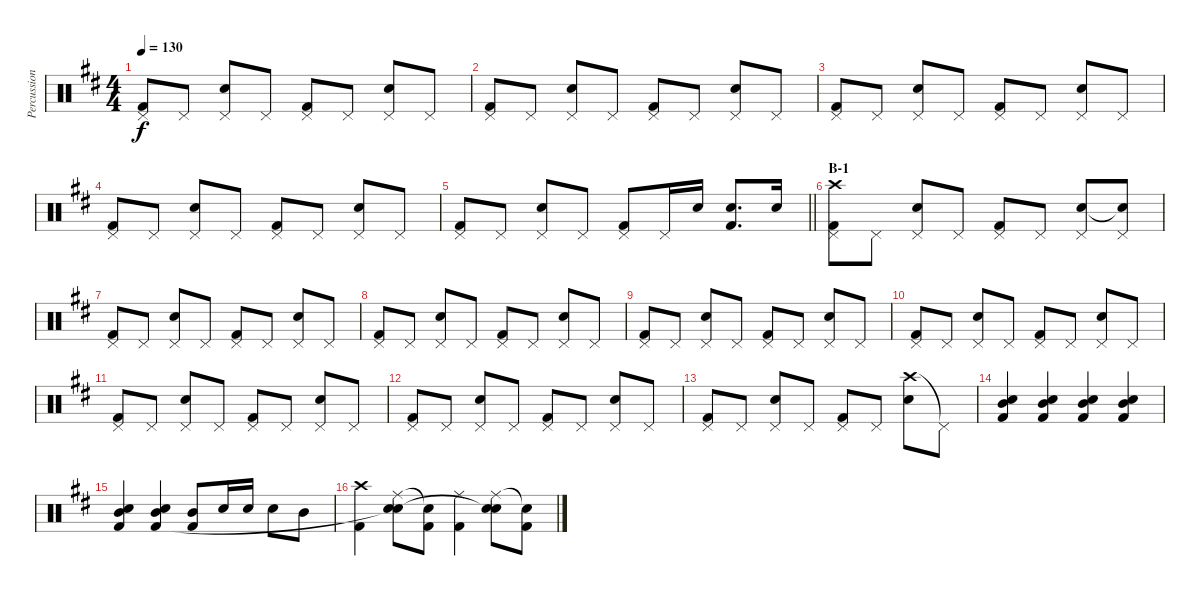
\track ("Percussion" "Percussion") {instrument percussion}
\staff {score}
\articulation defaults
\ts (4 4)
\tempo 130
\clef neutral
\ks d
("Pedal Hi-Hat (hit)" "Kick (hit) 2").8{dy f} "Pedal Hi-Hat (hit)".8 ("Pedal Hi-Hat (hit)" "Electric Snare (hit)").8 "Pedal Hi-Hat (hit)".8 ("Pedal Hi-Hat (hit)" "Kick (hit) 2").8 "Pedal Hi-Hat (hit)".8 ("Pedal Hi-Hat (hit)" "Electric Snare (hit)").8 "Pedal Hi-Hat (hit)".8 |
("Pedal Hi-Hat (hit)" "Kick (hit) 2").8 "Pedal Hi-Hat (hit)".8 ("Pedal Hi-Hat (hit)" "Electric Snare (hit)").8 "Pedal Hi-Hat (hit)".8 ("Pedal Hi-Hat (hit)" "Kick (hit) 2").8 "Pedal Hi-Hat (hit)".8 ("Pedal Hi-Hat (hit)" "Electric Snare (hit)").8 "Pedal Hi-Hat (hit)".8 |
("Pedal Hi-Hat (hit)" "Kick (hit) 2").8 "Pedal Hi-Hat (hit)".8 ("Pedal Hi-Hat (hit)" "Electric Snare (hit)").8 "Pedal Hi-Hat (hit)".8 ("Pedal Hi-Hat (hit)" "Kick (hit) 2").8 "Pedal Hi-Hat (hit)".8 ("Pedal Hi-Hat (hit)" "Electric Snare (hit)").8 "Pedal Hi-Hat (hit)".8 |
("Pedal Hi-Hat (hit)" "Kick (hit) 2").8 "Pedal Hi-Hat (hit)".8 ("Pedal Hi-Hat (hit)" "Electric Snare (hit)").8 "Pedal Hi-Hat (hit)".8 ("Pedal Hi-Hat (hit)" "Kick (hit) 2").8 "Pedal Hi-Hat (hit)".8 ("Pedal Hi-Hat (hit)" "Electric Snare (hit)").8 "Pedal Hi-Hat (hit)".8 |
\barLineRight lightlight
("Pedal Hi-Hat (hit)" "Kick (hit) 2").8 "Pedal Hi-Hat (hit)".8 ("Pedal Hi-Hat (hit)" "Electric Snare (hit)").8 "Pedal Hi-Hat (hit)".8 ("Pedal Hi-Hat (hit)" "Kick (hit) 2").8 "Pedal Hi-Hat (hit)".16 "Electric Snare (hit)".16 ("Electric Snare (hit)" "Kick (hit) 2").8{d} "Electric Snare (hit)".16 |
\section ("" "B-1")
("Pedal Hi-Hat (hit)" "Kick (hit) 2" "Crash high (hit)").8 "Pedal Hi-Hat (hit)".8 ("Pedal Hi-Hat (hit)" "Electric Snare (hit)").8 "Pedal Hi-Hat (hit)".8 ("Pedal Hi-Hat (hit)" "Kick (hit) 2").8 "Pedal Hi-Hat (hit)".8 ("Pedal Hi-Hat (hit)" "Electric Snare (hit)").8 ("Pedal Hi-Hat (hit)" "Snare (hit)"{t}).8 |
("Pedal Hi-Hat (hit)" "Kick (hit) 2").8 "Pedal Hi-Hat (hit)".8 ("Pedal Hi-Hat (hit)" "Electric Snare (hit)").8 "Pedal Hi-Hat (hit)".8 ("Pedal Hi-Hat (hit)" "Kick (hit) 2").8 "Pedal Hi-Hat (hit)".8 ("Pedal Hi-Hat (hit)" "Electric Snare (hit)").8 "Pedal Hi-Hat (hit)".8 |
("Pedal Hi-Hat (hit)" "Kick (hit) 2").8 "Pedal Hi-Hat (hit)".8 ("Pedal Hi-Hat (hit)" "Electric Snare (hit)").8 "Pedal Hi-Hat (hit)".8 ("Pedal Hi-Hat (hit)" "Kick (hit) 2").8 "Pedal Hi-Hat (hit)".8 ("Pedal Hi-Hat (hit)" "Electric Snare (hit)").8 "Pedal Hi-Hat (hit)".8 |
("Pedal Hi-Hat (hit)" "Kick (hit) 2").8 "Pedal Hi-Hat (hit)".8 ("Pedal Hi-Hat (hit)" "Electric Snare (hit)").8 "Pedal Hi-Hat (hit)".8 ("Pedal Hi-Hat (hit)" "Kick (hit) 2").8 "Pedal Hi-Hat (hit)".8 ("Pedal Hi-Hat (hit)" "Electric Snare (hit)").8 "Pedal Hi-Hat (hit)".8 |
("Pedal Hi-Hat (hit)" "Kick (hit) 2").8 "Pedal Hi-Hat (hit)".8 ("Pedal Hi-Hat (hit)" "Electric Snare (hit)").8 "Pedal Hi-Hat (hit)".8 ("Pedal Hi-Hat (hit)" "Kick (hit) 2").8 "Pedal Hi-Hat (hit)".8 ("Pedal Hi-Hat (hit)" "Electric Snare (hit)").8 "Pedal Hi-Hat (hit)".8 |
("Pedal Hi-Hat (hit)" "Kick (hit) 2").8 "Pedal Hi-Hat (hit)".8 ("Pedal Hi-Hat (hit)" "Electric Snare (hit)").8 "Pedal Hi-Hat (hit)".8 ("Pedal Hi-Hat (hit)" "Kick (hit) 2").8 "Pedal Hi-Hat (hit)".8 ("Pedal Hi-Hat (hit)" "Electric Snare (hit)").8 "Pedal Hi-Hat (hit)".8 |
("Pedal Hi-Hat (hit)" "Kick (hit) 2").8 "Pedal Hi-Hat (hit)".8 ("Pedal Hi-Hat (hit)" "Electric Snare (hit)").8 "Pedal Hi-Hat (hit)".8 ("Pedal Hi-Hat (hit)" "Kick (hit) 2").8 "Pedal Hi-Hat (hit)".8 ("Pedal Hi-Hat (hit)" "Electric Snare (hit)").8 "Pedal Hi-Hat (hit)".8 |
("Pedal Hi-Hat (hit)" "Kick (hit) 2").8 "Pedal Hi-Hat (hit)".8 ("Pedal Hi-Hat (hit)" "Electric Snare (hit)").8 "Pedal Hi-Hat (hit)".8 ("Pedal Hi-Hat (hit)" "Kick (hit) 2").8 "Pedal Hi-Hat (hit)".8 ("Crash high (hit)" "Electric Snare (hit)").8 "Pedal Hi-Hat (hit)"{t}.8 |
("Mid Tom (hit)" "Electric Snare (hit)" "Kick (hit) 2").4 ("Mid Tom (hit)" "Electric Snare (hit)" "Kick (hit) 2").4 ("Mid Tom (hit)" "Electric Snare (hit)" "Kick (hit) 2").4 ("Mid Tom (hit)" "Electric Snare (hit)" "Kick (hit) 2").4 |
("Mid Tom (hit)" "Electric Snare (hit)" "Kick (hit) 2").4 ("Mid Tom (hit)" "Electric Snare (hit)" "Kick (hit) 2").4 ("Mid Tom (hit)" "Kick (hit) 2").8 "Electric Snare (hit)".16 "Electric Snare (hit)".16 "Electric Snare (hit)".8 "Mid Tom (hit)".8 |
("Crash high (hit)" "Kick (hit) 2").4 ("Ride (middle)" "Electric Snare (hit)" "Snare (hit)"{t}).8 ("Snare (hit)"{t} "Kick (hit) 2").8 ("Ride (middle)" "Kick (hit) 2").4 ("Ride (middle)" "Electric Snare (hit)" "Snare (hit)"{t}).8 ("Snare (hit)"{t} "Kick (hit) 2").8
